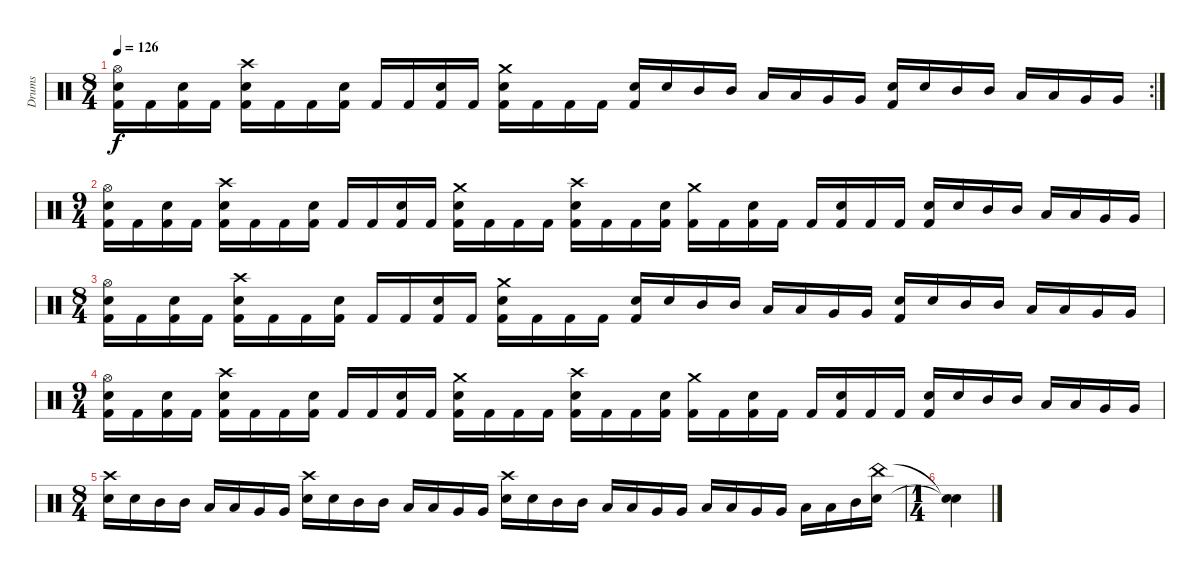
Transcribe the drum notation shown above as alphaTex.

\track ("Drums" "Drums") {instrument percussion}
\staff {score}
\articulation defaults
\rc 2
\ts (8 4)
\tempo 126
\clef neutral
\ks c
("Hi-Hat (open)" "Electric Snare (hit)" "Kick (hit) 2").16{dy f} "Kick (hit) 2".16 ("Electric Snare (hit)" "Kick (hit) 2").16 "Kick (hit) 2".16 ("Crash high (hit)" "Electric Snare (hit)" "Kick (hit) 2").16 "Kick (hit) 2".16 "Kick (hit) 2".16 ("Electric Snare (hit)" "Kick (hit) 2").16 "Kick (hit) 2".16 "Kick (hit) 2".16 ("Electric Snare (hit)" "Kick (hit) 2").16 "Kick (hit) 2".16 ("Crash medium (hit)" "Electric Snare (hit)" "Kick (hit) 2").16 "Kick (hit) 2".16 "Kick (hit) 2".16 "Kick (hit) 2".16 ("Electric Snare (hit)" "Kick (hit) 2").16 "Electric Snare (hit)".16 "Mid Tom (hit)".16 "Mid Tom (hit)".16 "Low Tom (hit)".16 "Low Tom (hit)".16 "Very Low Tom (hit)".16 "Very Low Tom (hit)".16 ("Electric Snare (hit)" "Kick (hit) 2").16 "Electric Snare (hit)".16 "Mid Tom (hit)".16 "Mid Tom (hit)".16 "Low Tom (hit)".16 "Low Tom (hit)".16 "Very Low Tom (hit)".16 "Very Low Tom (hit)".16 |
\ts (9 4)
("Hi-Hat (open)" "Electric Snare (hit)" "Kick (hit) 2").16 "Kick (hit) 2".16 ("Electric Snare (hit)" "Kick (hit) 2").16 "Kick (hit) 2".16 ("Crash high (hit)" "Electric Snare (hit)" "Kick (hit) 2").16 "Kick (hit) 2".16 "Kick (hit) 2".16 ("Electric Snare (hit)" "Kick (hit) 2").16 "Kick (hit) 2".16 "Kick (hit) 2".16 ("Electric Snare (hit)" "Kick (hit) 2").16 "Kick (hit) 2".16 ("Crash medium (hit)" "Electric Snare (hit)" "Kick (hit) 2").16 "Kick (hit) 2".16 "Kick (hit) 2".16 "Kick (hit) 2".16 ("Crash high (hit)" "Electric Snare (hit)" "Kick (hit) 2").16 "Kick (hit) 2".16 "Kick (hit) 2".16 ("Electric Snare (hit)" "Kick (hit) 2").16 ("Crash medium (hit)" "Kick (hit) 2").16 "Kick (hit) 2".16 ("Electric Snare (hit)" "Kick (hit) 2").16 "Kick (hit) 2".16 "Kick (hit) 2".16 ("Electric Snare (hit)" "Kick (hit) 2").16 "Kick (hit) 2".16 "Kick (hit) 2".16 ("Electric Snare (hit)" "Kick (hit) 2").16 "Electric Snare (hit)".16 "Mid Tom (hit)".16 "Mid Tom (hit)".16 "Low Tom (hit)".16 "Low Tom (hit)".16 "Very Low Tom (hit)".16 "Very Low Tom (hit)".16 |
\ts (8 4)
("Hi-Hat (open)" "Electric Snare (hit)" "Kick (hit) 2").16 "Kick (hit) 2".16 ("Electric Snare (hit)" "Kick (hit) 2").16 "Kick (hit) 2".16 ("Crash high (hit)" "Electric Snare (hit)" "Kick (hit) 2").16 "Kick (hit) 2".16 "Kick (hit) 2".16 ("Electric Snare (hit)" "Kick (hit) 2").16 "Kick (hit) 2".16 "Kick (hit) 2".16 ("Electric Snare (hit)" "Kick (hit) 2").16 "Kick (hit) 2".16 ("Crash medium (hit)" "Electric Snare (hit)" "Kick (hit) 2").16 "Kick (hit) 2".16 "Kick (hit) 2".16 "Kick (hit) 2".16 ("Electric Snare (hit)" "Kick (hit) 2").16 "Electric Snare (hit)".16 "Mid Tom (hit)".16 "Mid Tom (hit)".16 "Low Tom (hit)".16 "Low Tom (hit)".16 "Very Low Tom (hit)".16 "Very Low Tom (hit)".16 ("Electric Snare (hit)" "Kick (hit) 2").16 "Electric Snare (hit)".16 "Mid Tom (hit)".16 "Mid Tom (hit)".16 "Low Tom (hit)".16 "Low Tom (hit)".16 "Very Low Tom (hit)".16 "Very Low Tom (hit)".16 |
\ts (9 4)
("Hi-Hat (open)" "Electric Snare (hit)" "Kick (hit) 2").16 "Kick (hit) 2".16 ("Electric Snare (hit)" "Kick (hit) 2").16 "Kick (hit) 2".16 ("Crash high (hit)" "Electric Snare (hit)" "Kick (hit) 2").16 "Kick (hit) 2".16 "Kick (hit) 2".16 ("Electric Snare (hit)" "Kick (hit) 2").16 "Kick (hit) 2".16 "Kick (hit) 2".16 ("Electric Snare (hit)" "Kick (hit) 2").16 "Kick (hit) 2".16 ("Crash medium (hit)" "Electric Snare (hit)" "Kick (hit) 2").16 "Kick (hit) 2".16 "Kick (hit) 2".16 "Kick (hit) 2".16 ("Crash high (hit)" "Electric Snare (hit)" "Kick (hit) 2").16 "Kick (hit) 2".16 "Kick (hit) 2".16 ("Electric Snare (hit)" "Kick (hit) 2").16 ("Crash medium (hit)" "Kick (hit) 2").16 "Kick (hit) 2".16 ("Electric Snare (hit)" "Kick (hit) 2").16 "Kick (hit) 2".16 "Kick (hit) 2".16 ("Electric Snare (hit)" "Kick (hit) 2").16 "Kick (hit) 2".16 "Kick (hit) 2".16 ("Electric Snare (hit)" "Kick (hit) 2").16 "Electric Snare (hit)".16 "Mid Tom (hit)".16 "Mid Tom (hit)".16 "Low Tom (hit)".16 "Low Tom (hit)".16 "Very Low Tom (hit)".16 "Very Low Tom (hit)".16 |
\ts (8 4)
("Crash high (hit)" "Electric Snare (hit)").16 "Electric Snare (hit)".16 "Mid Tom (hit)".16 "Mid Tom (hit)".16 "Low Tom (hit)".16 "Low Tom (hit)".16 "Very Low Tom (hit)".16 "Very Low Tom (hit)".16 ("Crash high (hit)" "Electric Snare (hit)").16 "Electric Snare (hit)".16 "Mid Tom (hit)".16 "Mid Tom (hit)".16 "Low Tom (hit)".16 "Low Tom (hit)".16 "Very Low Tom (hit)".16 "Very Low Tom (hit)".16 ("Crash high (hit)" "Electric Snare (hit)").16 "Electric Snare (hit)".16 "Mid Tom (hit)".16 "Mid Tom (hit)".16 "Low Tom (hit)".16 "Low Tom (hit)".16 "Very Low Tom (hit)".16 "Very Low Tom (hit)".16 "Low Floor Tom (hit)".16 "Low Floor Tom (hit)".16 "Very Low Tom (hit)".16 "Very Low Tom (hit)".16 "Low Tom (hit)".16 "Low Tom (hit)".16 "Mid Tom (hit)".16 ("China (hit)" "Electric Snare (hit)").16 |
\ts (1 4)
("Snare (hit)"{t} "Snare (hit)"{t}).4
